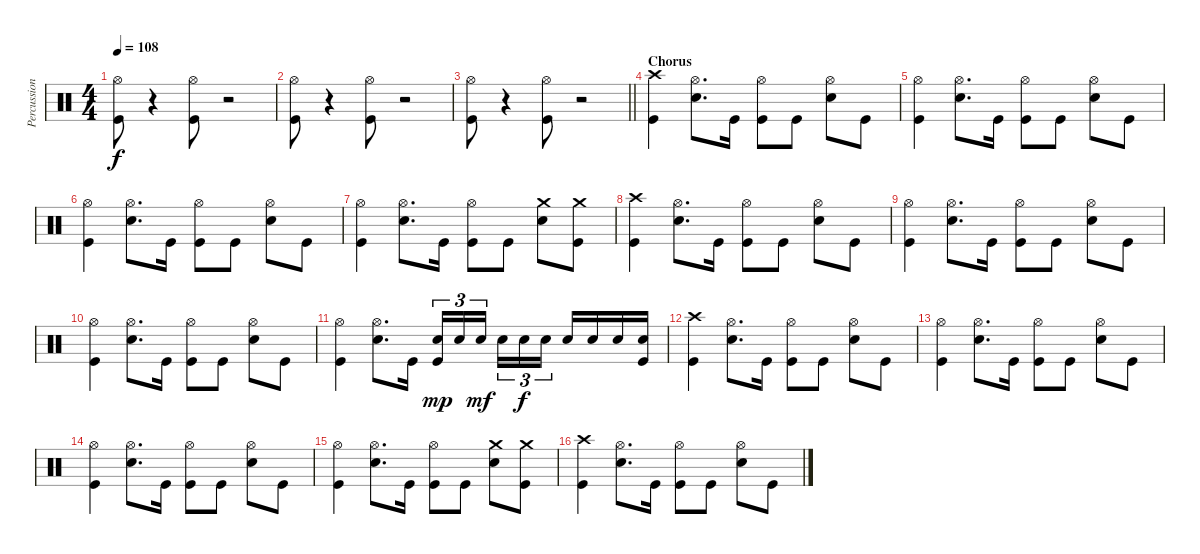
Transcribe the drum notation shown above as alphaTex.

\track ("Percussions" "Percussion") {instrument percussion}
\staff {score}
\articulation defaults
\ts (4 4)
\tempo 108
\clef neutral
\ks c
("Hi-Hat (open)" "Kick (hit)").8{dy f} r.4 ("Hi-Hat (open)" "Kick (hit)").8 r.2 |
("Hi-Hat (open)" "Kick (hit)").8 r.4 ("Hi-Hat (open)" "Kick (hit)").8 r.2 |
\barLineRight lightlight
("Hi-Hat (open)" "Kick (hit)").8 r.4 ("Hi-Hat (open)" "Kick (hit)").8 r.2 |
\section ("" "Chorus")
("Crash high (hit)" "Kick (hit)").4 ("Hi-Hat (open)" "Electric Snare (hit)").8{d} "Kick (hit)".16 ("Hi-Hat (open)" "Kick (hit)").8 "Kick (hit)".8 ("Hi-Hat (open)" "Electric Snare (hit)").8 "Kick (hit)".8 |
("Hi-Hat (open)" "Kick (hit)").4 ("Hi-Hat (open)" "Electric Snare (hit)").8{d} "Kick (hit)".16 ("Hi-Hat (open)" "Kick (hit)").8 "Kick (hit)".8 ("Hi-Hat (open)" "Electric Snare (hit)").8 "Kick (hit)".8 |
("Hi-Hat (open)" "Kick (hit)").4 ("Hi-Hat (open)" "Electric Snare (hit)").8{d} "Kick (hit)".16 ("Hi-Hat (open)" "Kick (hit)").8 "Kick (hit)".8 ("Hi-Hat (open)" "Electric Snare (hit)").8 "Kick (hit)".8 |
("Hi-Hat (open)" "Kick (hit)").4 ("Hi-Hat (open)" "Electric Snare (hit)").8{d} "Kick (hit)".16 ("Hi-Hat (open)" "Kick (hit)").8 "Kick (hit)".8 ("Crash medium (hit)" "Electric Snare (hit)").8 ("Crash medium (hit)" "Kick (hit)").8 |
("Crash high (hit)" "Kick (hit)").4 ("Hi-Hat (open)" "Electric Snare (hit)").8{d} "Kick (hit)".16 ("Hi-Hat (open)" "Kick (hit)").8 "Kick (hit)".8 ("Hi-Hat (open)" "Electric Snare (hit)").8 "Kick (hit)".8 |
("Hi-Hat (open)" "Kick (hit)").4 ("Hi-Hat (open)" "Electric Snare (hit)").8{d} "Kick (hit)".16 ("Hi-Hat (open)" "Kick (hit)").8 "Kick (hit)".8 ("Hi-Hat (open)" "Electric Snare (hit)").8 "Kick (hit)".8 |
("Hi-Hat (open)" "Kick (hit)").4 ("Hi-Hat (open)" "Electric Snare (hit)").8{d} "Kick (hit)".16 ("Hi-Hat (open)" "Kick (hit)").8 "Kick (hit)".8 ("Hi-Hat (open)" "Electric Snare (hit)").8 "Kick (hit)".8 |
("Hi-Hat (open)" "Kick (hit)").4 ("Hi-Hat (open)" "Electric Snare (hit)").8{d} "Kick (hit)".16 ("Electric Snare (hit)" "Kick (hit)").16{tu (3 2) dy mp} "Electric Snare (hit)".16{tu (3 2)} "Electric Snare (hit)".16{tu (3 2) dy mf beam splitsecondary} "Electric Snare (hit)".16{tu (3 2)} "Electric Snare (hit)".16{tu (3 2) dy f} "Electric Snare (hit)".16{tu (3 2)} "Electric Snare (hit)".16 "Electric Snare (hit)".16 "Electric Snare (hit)".16 ("Electric Snare (hit)" "Kick (hit)").16 |
("Crash high (hit)" "Kick (hit)").4 ("Hi-Hat (open)" "Electric Snare (hit)").8{d} "Kick (hit)".16 ("Hi-Hat (open)" "Kick (hit)").8 "Kick (hit)".8 ("Hi-Hat (open)" "Electric Snare (hit)").8 "Kick (hit)".8 |
("Hi-Hat (open)" "Kick (hit)").4 ("Hi-Hat (open)" "Electric Snare (hit)").8{d} "Kick (hit)".16 ("Hi-Hat (open)" "Kick (hit)").8 "Kick (hit)".8 ("Hi-Hat (open)" "Electric Snare (hit)").8 "Kick (hit)".8 |
("Hi-Hat (open)" "Kick (hit)").4 ("Hi-Hat (open)" "Electric Snare (hit)").8{d} "Kick (hit)".16 ("Hi-Hat (open)" "Kick (hit)").8 "Kick (hit)".8 ("Hi-Hat (open)" "Electric Snare (hit)").8 "Kick (hit)".8 |
("Hi-Hat (open)" "Kick (hit)").4 ("Hi-Hat (open)" "Electric Snare (hit)").8{d} "Kick (hit)".16 ("Hi-Hat (open)" "Kick (hit)").8 "Kick (hit)".8 ("Crash medium (hit)" "Electric Snare (hit)").8 ("Crash medium (hit)" "Kick (hit)").8 |
("Crash high (hit)" "Kick (hit)").4 ("Hi-Hat (open)" "Electric Snare (hit)").8{d} "Kick (hit)".16 ("Hi-Hat (open)" "Kick (hit)").8 "Kick (hit)".8 ("Hi-Hat (open)" "Electric Snare (hit)").8 "Kick (hit)".8
